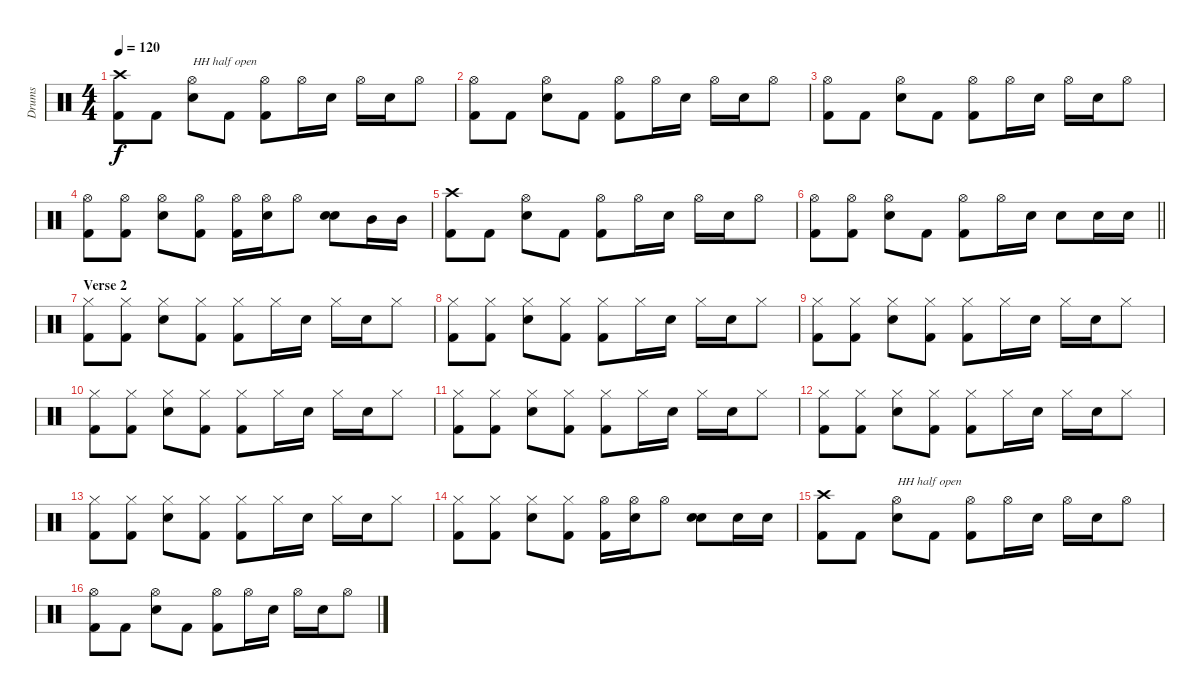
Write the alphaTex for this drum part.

\track ("Drums" "Drums") {instrument percussion}
\staff {score}
\articulation defaults
\ts (4 4)
\tempo 120
\clef neutral
\ks c
("Crash high (hit)" "Kick (hit) 2").8{dy f} "Kick (hit) 2".8 ("Hi-Hat (open)" "Electric Snare (hit)").8{txt "HH half open"} "Kick (hit) 2".8 ("Hi-Hat (open)" "Kick (hit) 2").8 "Hi-Hat (open)".16 "Electric Snare (hit)".16 "Hi-Hat (open)".16 "Electric Snare (hit)".16 "Hi-Hat (open)".8 |
("Hi-Hat (open)" "Kick (hit) 2").8 "Kick (hit) 2".8 ("Hi-Hat (open)" "Electric Snare (hit)").8 "Kick (hit) 2".8 ("Hi-Hat (open)" "Kick (hit) 2").8 "Hi-Hat (open)".16 "Electric Snare (hit)".16 "Hi-Hat (open)".16 "Electric Snare (hit)".16 "Hi-Hat (open)".8 |
("Hi-Hat (open)" "Kick (hit) 2").8 "Kick (hit) 2".8 ("Hi-Hat (open)" "Electric Snare (hit)").8 "Kick (hit) 2".8 ("Hi-Hat (open)" "Kick (hit) 2").8 "Hi-Hat (open)".16 "Electric Snare (hit)".16 "Hi-Hat (open)".16 "Electric Snare (hit)".16 "Hi-Hat (open)".8 |
("Hi-Hat (open)" "Kick (hit) 2").8 ("Hi-Hat (open)" "Kick (hit) 2").8 ("Hi-Hat (open)" "Electric Snare (hit)").8 ("Hi-Hat (open)" "Kick (hit) 2").8 ("Hi-Hat (open)" "Kick (hit) 2").16 ("Hi-Hat (open)" "Electric Snare (hit)").16 "Hi-Hat (open)".8 ("Electric Snare (hit)" "Electric Snare (hit)").8 "Mid Tom (hit)".16 "Mid Tom (hit)".16 |
("Crash high (hit)" "Kick (hit) 2").8 "Kick (hit) 2".8 ("Hi-Hat (open)" "Electric Snare (hit)").8 "Kick (hit) 2".8 ("Hi-Hat (open)" "Kick (hit) 2").8 "Hi-Hat (open)".16 "Electric Snare (hit)".16 "Hi-Hat (open)".16 "Electric Snare (hit)".16 "Hi-Hat (open)".8 |
\barLineRight lightlight
("Hi-Hat (open)" "Kick (hit) 2").8 ("Hi-Hat (open)" "Kick (hit) 2").8 ("Hi-Hat (open)" "Electric Snare (hit)").8 "Kick (hit) 2".8 ("Hi-Hat (open)" "Kick (hit) 2").8 "Hi-Hat (open)".16 "Electric Snare (hit)".16 "Electric Snare (hit)".8 "Electric Snare (hit)".16 "Electric Snare (hit)".16 |
\section ("" "Verse 2")
("Hi-Hat (closed)" "Kick (hit) 2").8 ("Hi-Hat (closed)" "Kick (hit) 2").8 ("Hi-Hat (closed)" "Electric Snare (hit)").8 ("Hi-Hat (closed)" "Kick (hit) 2").8 ("Hi-Hat (closed)" "Kick (hit) 2").8 "Hi-Hat (closed)".16 "Electric Snare (hit)".16 "Hi-Hat (closed)".16 "Electric Snare (hit)".16 "Hi-Hat (closed)".8 |
("Hi-Hat (closed)" "Kick (hit) 2").8 ("Hi-Hat (closed)" "Kick (hit) 2").8 ("Hi-Hat (closed)" "Electric Snare (hit)").8 ("Hi-Hat (closed)" "Kick (hit) 2").8 ("Hi-Hat (closed)" "Kick (hit) 2").8 "Hi-Hat (closed)".16 "Electric Snare (hit)".16 "Hi-Hat (closed)".16 "Electric Snare (hit)".16 "Hi-Hat (closed)".8 |
("Hi-Hat (closed)" "Kick (hit) 2").8 ("Hi-Hat (closed)" "Kick (hit) 2").8 ("Hi-Hat (closed)" "Electric Snare (hit)").8 ("Hi-Hat (closed)" "Kick (hit) 2").8 ("Hi-Hat (closed)" "Kick (hit) 2").8 "Hi-Hat (closed)".16 "Electric Snare (hit)".16 "Hi-Hat (closed)".16 "Electric Snare (hit)".16 "Hi-Hat (closed)".8 |
("Hi-Hat (closed)" "Kick (hit) 2").8 ("Hi-Hat (closed)" "Kick (hit) 2").8 ("Hi-Hat (closed)" "Electric Snare (hit)").8 ("Hi-Hat (closed)" "Kick (hit) 2").8 ("Hi-Hat (closed)" "Kick (hit) 2").8 "Hi-Hat (closed)".16 "Electric Snare (hit)".16 "Hi-Hat (closed)".16 "Electric Snare (hit)".16 "Hi-Hat (closed)".8 |
("Hi-Hat (closed)" "Kick (hit) 2").8 ("Hi-Hat (closed)" "Kick (hit) 2").8 ("Hi-Hat (closed)" "Electric Snare (hit)").8 ("Hi-Hat (closed)" "Kick (hit) 2").8 ("Hi-Hat (closed)" "Kick (hit) 2").8 "Hi-Hat (closed)".16 "Electric Snare (hit)".16 "Hi-Hat (closed)".16 "Electric Snare (hit)".16 "Hi-Hat (closed)".8 |
("Hi-Hat (closed)" "Kick (hit) 2").8 ("Hi-Hat (closed)" "Kick (hit) 2").8 ("Hi-Hat (closed)" "Electric Snare (hit)").8 ("Hi-Hat (closed)" "Kick (hit) 2").8 ("Hi-Hat (closed)" "Kick (hit) 2").8 "Hi-Hat (closed)".16 "Electric Snare (hit)".16 "Hi-Hat (closed)".16 "Electric Snare (hit)".16 "Hi-Hat (closed)".8 |
("Hi-Hat (closed)" "Kick (hit) 2").8 ("Hi-Hat (closed)" "Kick (hit) 2").8 ("Hi-Hat (closed)" "Electric Snare (hit)").8 ("Hi-Hat (closed)" "Kick (hit) 2").8 ("Hi-Hat (closed)" "Kick (hit) 2").8 "Hi-Hat (closed)".16 "Electric Snare (hit)".16 "Hi-Hat (closed)".16 "Electric Snare (hit)".16 "Hi-Hat (closed)".8 |
("Hi-Hat (closed)" "Kick (hit) 2").8 ("Hi-Hat (closed)" "Kick (hit) 2").8 ("Hi-Hat (closed)" "Electric Snare (hit)").8 ("Hi-Hat (closed)" "Kick (hit) 2").8 ("Hi-Hat (open)" "Kick (hit) 2").16 ("Hi-Hat (open)" "Electric Snare (hit)").16 "Hi-Hat (open)".8 ("Electric Snare (hit)" "Electric Snare (hit)").8 "Electric Snare (hit)".16 "Electric Snare (hit)".16 |
("Crash high (hit)" "Kick (hit) 2").8 "Kick (hit) 2".8 ("Hi-Hat (open)" "Electric Snare (hit)").8{txt "HH half open"} "Kick (hit) 2".8 ("Hi-Hat (open)" "Kick (hit) 2").8 "Hi-Hat (open)".16 "Electric Snare (hit)".16 "Hi-Hat (open)".16 "Electric Snare (hit)".16 "Hi-Hat (open)".8 |
("Hi-Hat (open)" "Kick (hit) 2").8 "Kick (hit) 2".8 ("Hi-Hat (open)" "Electric Snare (hit)").8 "Kick (hit) 2".8 ("Hi-Hat (open)" "Kick (hit) 2").8 "Hi-Hat (open)".16 "Electric Snare (hit)".16 "Hi-Hat (open)".16 "Electric Snare (hit)".16 "Hi-Hat (open)".8
